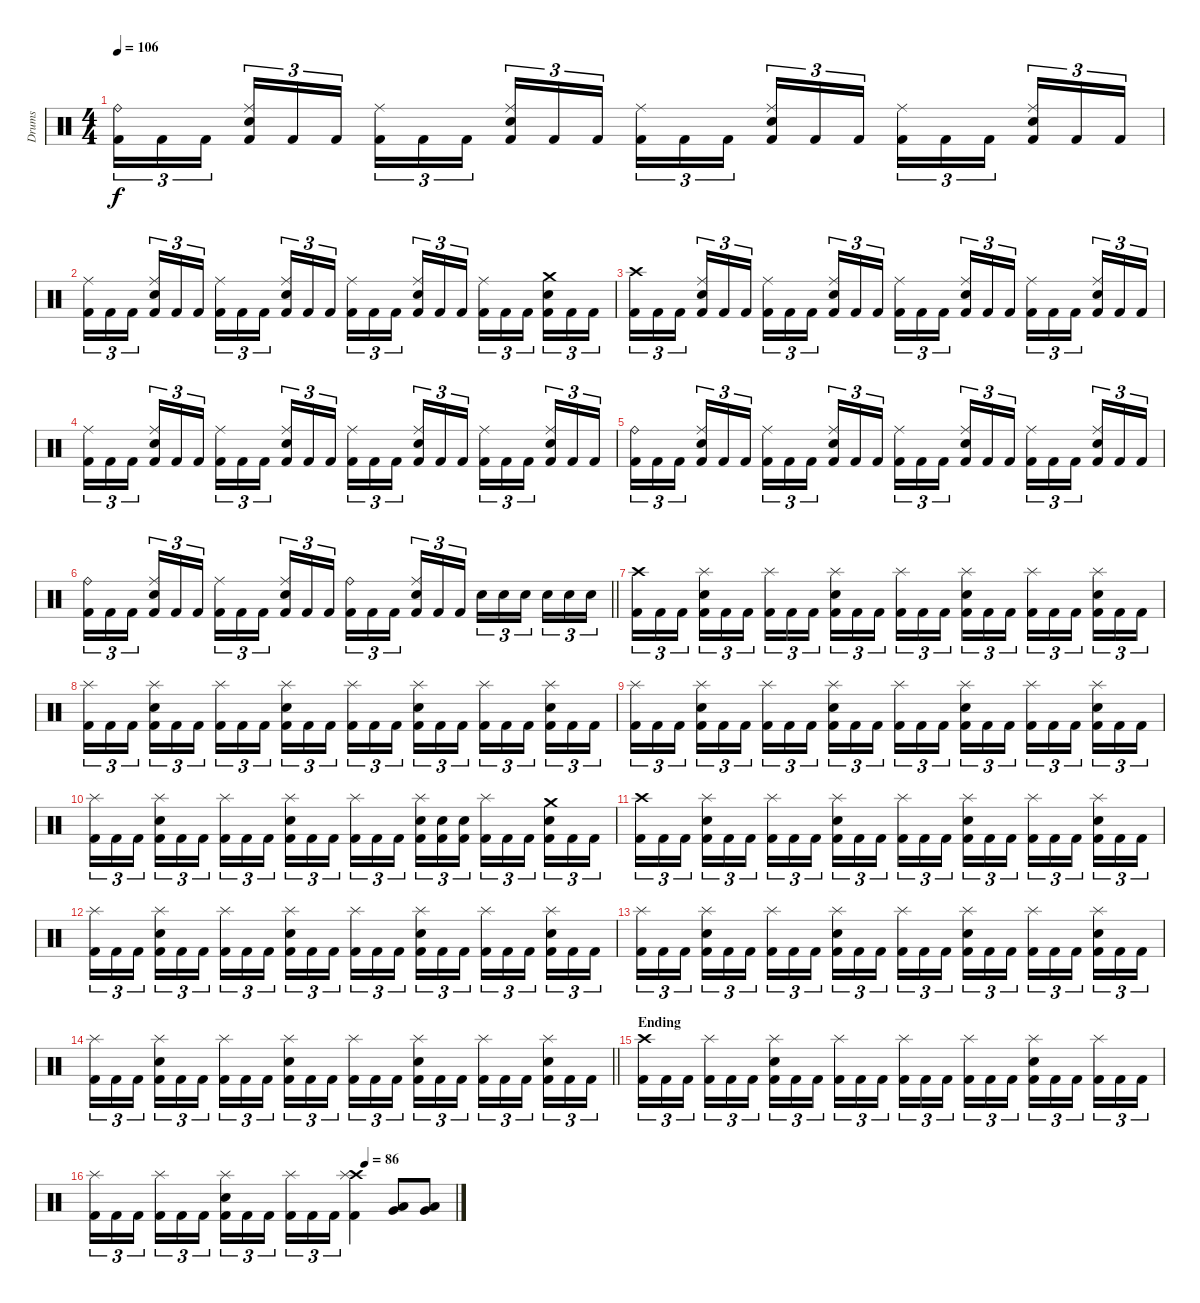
\track ("Drums" "Drums") {instrument percussion}
\staff {score}
\articulation defaults
\ts (4 4)
\tempo 106
\clef neutral
\ks c
("Ride (bell)" "Kick (hit) 2").16{tu (3 2) dy f} "Kick (hit) 2".16{tu (3 2)} "Kick (hit) 2".16{tu (3 2)} ("Ride (middle)" "Electric Snare (hit)" "Kick (hit) 2").16{tu (3 2)} "Kick (hit) 2".16{tu (3 2)} "Kick (hit) 2".16{tu (3 2)} ("Ride (middle)" "Kick (hit) 2").16{tu (3 2)} "Kick (hit) 2".16{tu (3 2)} "Kick (hit) 2".16{tu (3 2)} ("Ride (middle)" "Electric Snare (hit)" "Kick (hit) 2").16{tu (3 2)} "Kick (hit) 2".16{tu (3 2)} "Kick (hit) 2".16{tu (3 2)} ("Ride (middle)" "Kick (hit) 2").16{tu (3 2)} "Kick (hit) 2".16{tu (3 2)} "Kick (hit) 2".16{tu (3 2)} ("Ride (middle)" "Electric Snare (hit)" "Kick (hit) 2").16{tu (3 2)} "Kick (hit) 2".16{tu (3 2)} "Kick (hit) 2".16{tu (3 2)} ("Ride (middle)" "Kick (hit) 2").16{tu (3 2)} "Kick (hit) 2".16{tu (3 2)} "Kick (hit) 2".16{tu (3 2)} ("Ride (middle)" "Electric Snare (hit)" "Kick (hit) 2").16{tu (3 2)} "Kick (hit) 2".16{tu (3 2)} "Kick (hit) 2".16{tu (3 2)} |
("Ride (middle)" "Kick (hit) 2").16{tu (3 2)} "Kick (hit) 2".16{tu (3 2)} "Kick (hit) 2".16{tu (3 2)} ("Ride (middle)" "Electric Snare (hit)" "Kick (hit) 2").16{tu (3 2)} "Kick (hit) 2".16{tu (3 2)} "Kick (hit) 2".16{tu (3 2)} ("Ride (middle)" "Kick (hit) 2").16{tu (3 2)} "Kick (hit) 2".16{tu (3 2)} "Kick (hit) 2".16{tu (3 2)} ("Ride (middle)" "Electric Snare (hit)" "Kick (hit) 2").16{tu (3 2)} "Kick (hit) 2".16{tu (3 2)} "Kick (hit) 2".16{tu (3 2)} ("Ride (middle)" "Kick (hit) 2").16{tu (3 2)} "Kick (hit) 2".16{tu (3 2)} "Kick (hit) 2".16{tu (3 2)} ("Ride (middle)" "Electric Snare (hit)" "Kick (hit) 2").16{tu (3 2)} "Kick (hit) 2".16{tu (3 2)} "Kick (hit) 2".16{tu (3 2)} ("Ride (middle)" "Kick (hit) 2").16{tu (3 2)} "Kick (hit) 2".16{tu (3 2)} "Kick (hit) 2".16{tu (3 2)} ("Crash medium (hit)" "Electric Snare (hit)" "Kick (hit) 2").16{tu (3 2)} "Kick (hit) 2".16{tu (3 2)} "Kick (hit) 2".16{tu (3 2)} |
("Crash high (hit)" "Kick (hit) 2").16{tu (3 2)} "Kick (hit) 2".16{tu (3 2)} "Kick (hit) 2".16{tu (3 2)} ("Ride (middle)" "Electric Snare (hit)" "Kick (hit) 2").16{tu (3 2)} "Kick (hit) 2".16{tu (3 2)} "Kick (hit) 2".16{tu (3 2)} ("Ride (middle)" "Kick (hit) 2").16{tu (3 2)} "Kick (hit) 2".16{tu (3 2)} "Kick (hit) 2".16{tu (3 2)} ("Ride (middle)" "Electric Snare (hit)" "Kick (hit) 2").16{tu (3 2)} "Kick (hit) 2".16{tu (3 2)} "Kick (hit) 2".16{tu (3 2)} ("Ride (middle)" "Kick (hit) 2").16{tu (3 2)} "Kick (hit) 2".16{tu (3 2)} "Kick (hit) 2".16{tu (3 2)} ("Ride (middle)" "Electric Snare (hit)" "Kick (hit) 2").16{tu (3 2)} "Kick (hit) 2".16{tu (3 2)} "Kick (hit) 2".16{tu (3 2)} ("Ride (middle)" "Kick (hit) 2").16{tu (3 2)} "Kick (hit) 2".16{tu (3 2)} "Kick (hit) 2".16{tu (3 2)} ("Ride (middle)" "Electric Snare (hit)" "Kick (hit) 2").16{tu (3 2)} "Kick (hit) 2".16{tu (3 2)} "Kick (hit) 2".16{tu (3 2)} |
("Ride (middle)" "Kick (hit) 2").16{tu (3 2)} "Kick (hit) 2".16{tu (3 2)} "Kick (hit) 2".16{tu (3 2)} ("Ride (middle)" "Electric Snare (hit)" "Kick (hit) 2").16{tu (3 2)} "Kick (hit) 2".16{tu (3 2)} "Kick (hit) 2".16{tu (3 2)} ("Ride (middle)" "Kick (hit) 2").16{tu (3 2)} "Kick (hit) 2".16{tu (3 2)} "Kick (hit) 2".16{tu (3 2)} ("Ride (middle)" "Electric Snare (hit)" "Kick (hit) 2").16{tu (3 2)} "Kick (hit) 2".16{tu (3 2)} "Kick (hit) 2".16{tu (3 2)} ("Ride (middle)" "Kick (hit) 2").16{tu (3 2)} "Kick (hit) 2".16{tu (3 2)} "Kick (hit) 2".16{tu (3 2)} ("Ride (middle)" "Electric Snare (hit)" "Kick (hit) 2").16{tu (3 2)} "Kick (hit) 2".16{tu (3 2)} "Kick (hit) 2".16{tu (3 2)} ("Ride (middle)" "Kick (hit) 2").16{tu (3 2)} "Kick (hit) 2".16{tu (3 2)} "Kick (hit) 2".16{tu (3 2)} ("Ride (middle)" "Electric Snare (hit)" "Kick (hit) 2").16{tu (3 2)} "Kick (hit) 2".16{tu (3 2)} "Kick (hit) 2".16{tu (3 2)} |
("Ride (bell)" "Kick (hit) 2").16{tu (3 2)} "Kick (hit) 2".16{tu (3 2)} "Kick (hit) 2".16{tu (3 2)} ("Ride (middle)" "Electric Snare (hit)" "Kick (hit) 2").16{tu (3 2)} "Kick (hit) 2".16{tu (3 2)} "Kick (hit) 2".16{tu (3 2)} ("Ride (middle)" "Kick (hit) 2").16{tu (3 2)} "Kick (hit) 2".16{tu (3 2)} "Kick (hit) 2".16{tu (3 2)} ("Ride (middle)" "Electric Snare (hit)" "Kick (hit) 2").16{tu (3 2)} "Kick (hit) 2".16{tu (3 2)} "Kick (hit) 2".16{tu (3 2)} ("Ride (middle)" "Kick (hit) 2").16{tu (3 2)} "Kick (hit) 2".16{tu (3 2)} "Kick (hit) 2".16{tu (3 2)} ("Ride (middle)" "Electric Snare (hit)" "Kick (hit) 2").16{tu (3 2)} "Kick (hit) 2".16{tu (3 2)} "Kick (hit) 2".16{tu (3 2)} ("Ride (middle)" "Kick (hit) 2").16{tu (3 2)} "Kick (hit) 2".16{tu (3 2)} "Kick (hit) 2".16{tu (3 2)} ("Ride (middle)" "Electric Snare (hit)" "Kick (hit) 2").16{tu (3 2)} "Kick (hit) 2".16{tu (3 2)} "Kick (hit) 2".16{tu (3 2)} |
\barLineRight lightlight
("Ride (bell)" "Kick (hit) 2").16{tu (3 2)} "Kick (hit) 2".16{tu (3 2)} "Kick (hit) 2".16{tu (3 2)} ("Ride (middle)" "Electric Snare (hit)" "Kick (hit) 2").16{tu (3 2)} "Kick (hit) 2".16{tu (3 2)} "Kick (hit) 2".16{tu (3 2)} ("Ride (middle)" "Kick (hit) 2").16{tu (3 2)} "Kick (hit) 2".16{tu (3 2)} "Kick (hit) 2".16{tu (3 2)} ("Ride (middle)" "Electric Snare (hit)" "Kick (hit) 2").16{tu (3 2)} "Kick (hit) 2".16{tu (3 2)} "Kick (hit) 2".16{tu (3 2)} ("Ride (bell)" "Kick (hit) 2").16{tu (3 2)} "Kick (hit) 2".16{tu (3 2)} "Kick (hit) 2".16{tu (3 2)} ("Ride (middle)" "Electric Snare (hit)" "Kick (hit) 2").16{tu (3 2)} "Kick (hit) 2".16{tu (3 2)} "Kick (hit) 2".16{tu (3 2)} "Electric Snare (hit)".16{tu (3 2)} "Electric Snare (hit)".16{tu (3 2)} "Electric Snare (hit)".16{tu (3 2)} "Electric Snare (hit)".16{tu (3 2)} "Electric Snare (hit)".16{tu (3 2)} "Electric Snare (hit)".16{tu (3 2)} |
\section ("" "")
("Crash high (hit)" "Kick (hit) 2").16{tu (3 2)} "Kick (hit) 2".16{tu (3 2)} "Kick (hit) 2".16{tu (3 2)} ("Splash (hit)" "Electric Snare (hit)" "Kick (hit) 2").16{tu (3 2)} "Kick (hit) 2".16{tu (3 2)} "Kick (hit) 2".16{tu (3 2)} ("Splash (hit)" "Kick (hit) 2").16{tu (3 2)} "Kick (hit) 2".16{tu (3 2)} "Kick (hit) 2".16{tu (3 2)} ("Splash (hit)" "Electric Snare (hit)" "Kick (hit) 2").16{tu (3 2)} "Kick (hit) 2".16{tu (3 2)} "Kick (hit) 2".16{tu (3 2)} ("Splash (hit)" "Kick (hit) 2").16{tu (3 2)} "Kick (hit) 2".16{tu (3 2)} "Kick (hit) 2".16{tu (3 2)} ("Splash (hit)" "Electric Snare (hit)" "Kick (hit) 2").16{tu (3 2)} "Kick (hit) 2".16{tu (3 2)} "Kick (hit) 2".16{tu (3 2)} ("Splash (hit)" "Kick (hit) 2").16{tu (3 2)} "Kick (hit) 2".16{tu (3 2)} "Kick (hit) 2".16{tu (3 2)} ("Splash (hit)" "Electric Snare (hit)" "Kick (hit) 2").16{tu (3 2)} "Kick (hit) 2".16{tu (3 2)} "Kick (hit) 2".16{tu (3 2)} |
("Splash (hit)" "Kick (hit) 2").16{tu (3 2)} "Kick (hit) 2".16{tu (3 2)} "Kick (hit) 2".16{tu (3 2)} ("Splash (hit)" "Electric Snare (hit)" "Kick (hit) 2").16{tu (3 2)} "Kick (hit) 2".16{tu (3 2)} "Kick (hit) 2".16{tu (3 2)} ("Splash (hit)" "Kick (hit) 2").16{tu (3 2)} "Kick (hit) 2".16{tu (3 2)} "Kick (hit) 2".16{tu (3 2)} ("Splash (hit)" "Electric Snare (hit)" "Kick (hit) 2").16{tu (3 2)} "Kick (hit) 2".16{tu (3 2)} "Kick (hit) 2".16{tu (3 2)} ("Splash (hit)" "Kick (hit) 2").16{tu (3 2)} "Kick (hit) 2".16{tu (3 2)} "Kick (hit) 2".16{tu (3 2)} ("Splash (hit)" "Electric Snare (hit)" "Kick (hit) 2").16{tu (3 2)} "Kick (hit) 2".16{tu (3 2)} "Kick (hit) 2".16{tu (3 2)} ("Splash (hit)" "Kick (hit) 2").16{tu (3 2)} "Kick (hit) 2".16{tu (3 2)} "Kick (hit) 2".16{tu (3 2)} ("Splash (hit)" "Electric Snare (hit)" "Kick (hit) 2").16{tu (3 2)} "Kick (hit) 2".16{tu (3 2)} "Kick (hit) 2".16{tu (3 2)} |
("Splash (hit)" "Kick (hit) 2").16{tu (3 2)} "Kick (hit) 2".16{tu (3 2)} "Kick (hit) 2".16{tu (3 2)} ("Splash (hit)" "Electric Snare (hit)" "Kick (hit) 2").16{tu (3 2)} "Kick (hit) 2".16{tu (3 2)} "Kick (hit) 2".16{tu (3 2)} ("Splash (hit)" "Kick (hit) 2").16{tu (3 2)} "Kick (hit) 2".16{tu (3 2)} "Kick (hit) 2".16{tu (3 2)} ("Splash (hit)" "Electric Snare (hit)" "Kick (hit) 2").16{tu (3 2)} "Kick (hit) 2".16{tu (3 2)} "Kick (hit) 2".16{tu (3 2)} ("Splash (hit)" "Kick (hit) 2").16{tu (3 2)} "Kick (hit) 2".16{tu (3 2)} "Kick (hit) 2".16{tu (3 2)} ("Splash (hit)" "Electric Snare (hit)" "Kick (hit) 2").16{tu (3 2)} "Kick (hit) 2".16{tu (3 2)} "Kick (hit) 2".16{tu (3 2)} ("Splash (hit)" "Kick (hit) 2").16{tu (3 2)} "Kick (hit) 2".16{tu (3 2)} "Kick (hit) 2".16{tu (3 2)} ("Splash (hit)" "Electric Snare (hit)" "Kick (hit) 2").16{tu (3 2)} "Kick (hit) 2".16{tu (3 2)} "Kick (hit) 2".16{tu (3 2)} |
("Splash (hit)" "Kick (hit) 2").16{tu (3 2)} "Kick (hit) 2".16{tu (3 2)} "Kick (hit) 2".16{tu (3 2)} ("Splash (hit)" "Electric Snare (hit)" "Kick (hit) 2").16{tu (3 2)} "Kick (hit) 2".16{tu (3 2)} "Kick (hit) 2".16{tu (3 2)} ("Splash (hit)" "Kick (hit) 2").16{tu (3 2)} "Kick (hit) 2".16{tu (3 2)} "Kick (hit) 2".16{tu (3 2)} ("Splash (hit)" "Electric Snare (hit)" "Kick (hit) 2").16{tu (3 2)} "Kick (hit) 2".16{tu (3 2)} "Kick (hit) 2".16{tu (3 2)} ("Splash (hit)" "Kick (hit) 2").16{tu (3 2)} "Kick (hit) 2".16{tu (3 2)} "Kick (hit) 2".16{tu (3 2)} ("Splash (hit)" "Electric Snare (hit)" "Kick (hit) 2").16{tu (3 2)} ("Electric Snare (hit)" "Kick (hit) 2").16{tu (3 2)} ("Electric Snare (hit)" "Kick (hit) 2").16{tu (3 2)} ("Splash (hit)" "Kick (hit) 2").16{tu (3 2)} "Kick (hit) 2".16{tu (3 2)} "Kick (hit) 2".16{tu (3 2)} ("Crash medium (hit)" "Electric Snare (hit)" "Kick (hit) 2").16{tu (3 2)} "Kick (hit) 2".16{tu (3 2)} "Kick (hit) 2".16{tu (3 2)} |
("Crash high (hit)" "Kick (hit) 2").16{tu (3 2)} "Kick (hit) 2".16{tu (3 2)} "Kick (hit) 2".16{tu (3 2)} ("Splash (hit)" "Electric Snare (hit)" "Kick (hit) 2").16{tu (3 2)} "Kick (hit) 2".16{tu (3 2)} "Kick (hit) 2".16{tu (3 2)} ("Splash (hit)" "Kick (hit) 2").16{tu (3 2)} "Kick (hit) 2".16{tu (3 2)} "Kick (hit) 2".16{tu (3 2)} ("Splash (hit)" "Electric Snare (hit)" "Kick (hit) 2").16{tu (3 2)} "Kick (hit) 2".16{tu (3 2)} "Kick (hit) 2".16{tu (3 2)} ("Splash (hit)" "Kick (hit) 2").16{tu (3 2)} "Kick (hit) 2".16{tu (3 2)} "Kick (hit) 2".16{tu (3 2)} ("Splash (hit)" "Electric Snare (hit)" "Kick (hit) 2").16{tu (3 2)} "Kick (hit) 2".16{tu (3 2)} "Kick (hit) 2".16{tu (3 2)} ("Splash (hit)" "Kick (hit) 2").16{tu (3 2)} "Kick (hit) 2".16{tu (3 2)} "Kick (hit) 2".16{tu (3 2)} ("Splash (hit)" "Electric Snare (hit)" "Kick (hit) 2").16{tu (3 2)} "Kick (hit) 2".16{tu (3 2)} "Kick (hit) 2".16{tu (3 2)} |
("Splash (hit)" "Kick (hit) 2").16{tu (3 2)} "Kick (hit) 2".16{tu (3 2)} "Kick (hit) 2".16{tu (3 2)} ("Splash (hit)" "Electric Snare (hit)" "Kick (hit) 2").16{tu (3 2)} "Kick (hit) 2".16{tu (3 2)} "Kick (hit) 2".16{tu (3 2)} ("Splash (hit)" "Kick (hit) 2").16{tu (3 2)} "Kick (hit) 2".16{tu (3 2)} "Kick (hit) 2".16{tu (3 2)} ("Splash (hit)" "Electric Snare (hit)" "Kick (hit) 2").16{tu (3 2)} "Kick (hit) 2".16{tu (3 2)} "Kick (hit) 2".16{tu (3 2)} ("Splash (hit)" "Kick (hit) 2").16{tu (3 2)} "Kick (hit) 2".16{tu (3 2)} "Kick (hit) 2".16{tu (3 2)} ("Splash (hit)" "Electric Snare (hit)" "Kick (hit) 2").16{tu (3 2)} "Kick (hit) 2".16{tu (3 2)} "Kick (hit) 2".16{tu (3 2)} ("Splash (hit)" "Kick (hit) 2").16{tu (3 2)} "Kick (hit) 2".16{tu (3 2)} "Kick (hit) 2".16{tu (3 2)} ("Splash (hit)" "Electric Snare (hit)" "Kick (hit) 2").16{tu (3 2)} "Kick (hit) 2".16{tu (3 2)} "Kick (hit) 2".16{tu (3 2)} |
("Splash (hit)" "Kick (hit) 2").16{tu (3 2)} "Kick (hit) 2".16{tu (3 2)} "Kick (hit) 2".16{tu (3 2)} ("Splash (hit)" "Electric Snare (hit)" "Kick (hit) 2").16{tu (3 2)} "Kick (hit) 2".16{tu (3 2)} "Kick (hit) 2".16{tu (3 2)} ("Splash (hit)" "Kick (hit) 2").16{tu (3 2)} "Kick (hit) 2".16{tu (3 2)} "Kick (hit) 2".16{tu (3 2)} ("Splash (hit)" "Electric Snare (hit)" "Kick (hit) 2").16{tu (3 2)} "Kick (hit) 2".16{tu (3 2)} "Kick (hit) 2".16{tu (3 2)} ("Splash (hit)" "Kick (hit) 2").16{tu (3 2)} "Kick (hit) 2".16{tu (3 2)} "Kick (hit) 2".16{tu (3 2)} ("Splash (hit)" "Electric Snare (hit)" "Kick (hit) 2").16{tu (3 2)} "Kick (hit) 2".16{tu (3 2)} "Kick (hit) 2".16{tu (3 2)} ("Splash (hit)" "Kick (hit) 2").16{tu (3 2)} "Kick (hit) 2".16{tu (3 2)} "Kick (hit) 2".16{tu (3 2)} ("Splash (hit)" "Electric Snare (hit)" "Kick (hit) 2").16{tu (3 2)} "Kick (hit) 2".16{tu (3 2)} "Kick (hit) 2".16{tu (3 2)} |
\barLineRight lightlight
("Splash (hit)" "Kick (hit) 2").16{tu (3 2)} "Kick (hit) 2".16{tu (3 2)} "Kick (hit) 2".16{tu (3 2)} ("Splash (hit)" "Electric Snare (hit)" "Kick (hit) 2").16{tu (3 2)} "Kick (hit) 2".16{tu (3 2)} "Kick (hit) 2".16{tu (3 2)} ("Splash (hit)" "Kick (hit) 2").16{tu (3 2)} "Kick (hit) 2".16{tu (3 2)} "Kick (hit) 2".16{tu (3 2)} ("Splash (hit)" "Electric Snare (hit)" "Kick (hit) 2").16{tu (3 2)} "Kick (hit) 2".16{tu (3 2)} "Kick (hit) 2".16{tu (3 2)} ("Splash (hit)" "Kick (hit) 2").16{tu (3 2)} "Kick (hit) 2".16{tu (3 2)} "Kick (hit) 2".16{tu (3 2)} ("Splash (hit)" "Electric Snare (hit)" "Kick (hit) 2").16{tu (3 2)} "Kick (hit) 2".16{tu (3 2)} "Kick (hit) 2".16{tu (3 2)} ("Splash (hit)" "Kick (hit) 2").16{tu (3 2)} "Kick (hit) 2".16{tu (3 2)} "Kick (hit) 2".16{tu (3 2)} ("Splash (hit)" "Electric Snare (hit)" "Kick (hit) 2").16{tu (3 2)} "Kick (hit) 2".16{tu (3 2)} "Kick (hit) 2".16{tu (3 2)} |
\section ("" "Ending")
("Crash high (hit)" "Kick (hit) 2").16{tu (3 2)} "Kick (hit) 2".16{tu (3 2)} "Kick (hit) 2".16{tu (3 2)} ("Splash (hit)" "Kick (hit) 2").16{tu (3 2)} "Kick (hit) 2".16{tu (3 2)} "Kick (hit) 2".16{tu (3 2)} ("Splash (hit)" "Electric Snare (hit)" "Kick (hit) 2").16{tu (3 2)} "Kick (hit) 2".16{tu (3 2)} "Kick (hit) 2".16{tu (3 2)} ("Splash (hit)" "Kick (hit) 2").16{tu (3 2)} "Kick (hit) 2".16{tu (3 2)} "Kick (hit) 2".16{tu (3 2)} ("Splash (hit)" "Kick (hit) 2").16{tu (3 2)} "Kick (hit) 2".16{tu (3 2)} "Kick (hit) 2".16{tu (3 2)} ("Splash (hit)" "Kick (hit) 2").16{tu (3 2)} "Kick (hit) 2".16{tu (3 2)} "Kick (hit) 2".16{tu (3 2)} ("Splash (hit)" "Electric Snare (hit)" "Kick (hit) 2").16{tu (3 2)} "Kick (hit) 2".16{tu (3 2)} "Kick (hit) 2".16{tu (3 2)} ("Splash (hit)" "Kick (hit) 2").16{tu (3 2)} "Kick (hit) 2".16{tu (3 2)} "Kick (hit) 2".16{tu (3 2)} |
\tempo (86 0.75)
("Splash (hit)" "Kick (hit) 2").16{tu (3 2)} "Kick (hit) 2".16{tu (3 2)} "Kick (hit) 2".16{tu (3 2)} ("Splash (hit)" "Kick (hit) 2").16{tu (3 2)} "Kick (hit) 2".16{tu (3 2)} "Kick (hit) 2".16{tu (3 2)} ("Splash (hit)" "Electric Snare (hit)" "Kick (hit) 2").16{tu (3 2)} "Kick (hit) 2".16{tu (3 2)} "Kick (hit) 2".16{tu (3 2)} ("Splash (hit)" "Kick (hit) 2").16{tu (3 2)} "Kick (hit) 2".16{tu (3 2)} "Kick (hit) 2".16{tu (3 2)} ("Crash high (hit)" "Splash (hit)" "Kick (hit) 2").4 ("Low Tom (hit)" "Very Low Tom (hit)").8 ("Low Tom (hit)" "Very Low Tom (hit)").8
